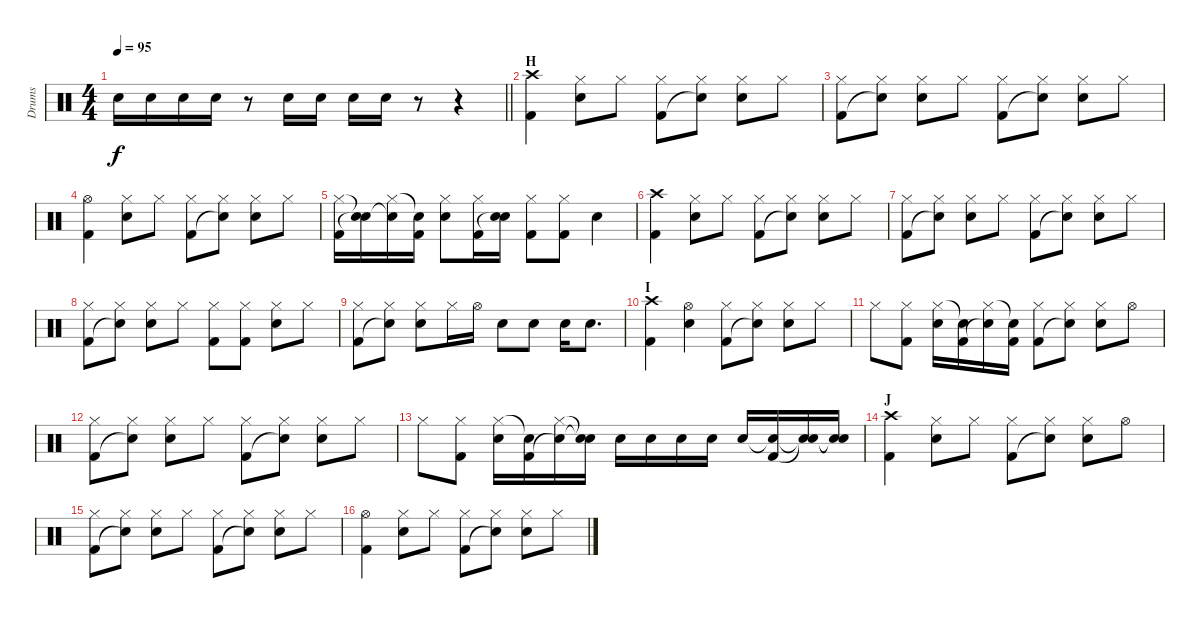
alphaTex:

\track ("Drums" "Drums") {instrument percussion}
\staff {score}
\articulation defaults
\ts (4 4)
\tempo 95
\clef neutral
\barLineRight lightlight
\ks c "Snare (hit) 2".16{dy f} "Snare (hit) 2".16 "Snare (hit) 2".16 "Snare (hit) 2".16
r.8 "Snare (hit) 2".16 "Snare (hit) 2".16 "Snare (hit) 2".16 "Snare (hit) 2".16 r.8 r.4 |
\section ("" "H")
("Crash high (hit)" "Kick (hit) 2").4 ("Hi-Hat (closed)" "Snare (hit) 2").8 "Hi-Hat (closed)".8 ("Hi-Hat (closed)" "Kick (hit) 2").8 ("Hi-Hat (closed)" "Snare (hit)"{t}).8 ("Hi-Hat (closed)" "Snare (hit) 2").8 "Hi-Hat (closed)".8 |
("Hi-Hat (closed)" "Kick (hit) 2").8 ("Hi-Hat (closed)" "Snare (hit)"{t}).8 ("Hi-Hat (closed)" "Snare (hit) 2").8 "Hi-Hat (closed)".8 ("Hi-Hat (closed)" "Kick (hit) 2").8 ("Hi-Hat (closed)" "Snare (hit)"{t}).8 ("Hi-Hat (closed)" "Snare (hit) 2").8 "Hi-Hat (closed)".8 |
("Hi-Hat (open)" "Kick (hit) 2").4 ("Hi-Hat (closed)" "Snare (hit) 2").8 "Hi-Hat (closed)".8 ("Hi-Hat (closed)" "Kick (hit) 2").8 ("Hi-Hat (closed)" "Snare (hit)"{t}).8 ("Hi-Hat (closed)" "Snare (hit) 2").8 "Hi-Hat (closed)".8 |
("Hi-Hat (closed)" "Kick (hit) 2").16 ("Snare (hit)"{t} "Snare (hit)"{t}).16 ("Hi-Hat (closed)" "Snare (hit)"{t}).16 ("Snare (hit)"{t} "Kick (hit) 2").16 ("Hi-Hat (closed)" "Snare (hit) 2").8 ("Hi-Hat (closed)" "Kick (hit) 2").16 ("Snare (hit) 2" "Snare (hit)"{t}).16 ("Hi-Hat (closed)" "Kick (hit) 2").8 ("Hi-Hat (closed)" "Kick (hit) 2").8 "Snare (hit) 2".4 |
("Crash high (hit)" "Kick (hit) 2").4 ("Hi-Hat (closed)" "Snare (hit) 2").8 "Hi-Hat (closed)".8 ("Hi-Hat (closed)" "Kick (hit) 2").8 ("Hi-Hat (closed)" "Snare (hit)"{t}).8 ("Hi-Hat (closed)" "Snare (hit) 2").8 "Hi-Hat (closed)".8 |
("Hi-Hat (closed)" "Kick (hit) 2").8 ("Hi-Hat (closed)" "Snare (hit)"{t}).8 ("Hi-Hat (closed)" "Snare (hit) 2").8 "Hi-Hat (closed)".8 ("Hi-Hat (closed)" "Kick (hit) 2").8 ("Hi-Hat (closed)" "Snare (hit)"{t}).8 ("Hi-Hat (closed)" "Snare (hit) 2").8 "Hi-Hat (closed)".8 |
("Hi-Hat (closed)" "Kick (hit) 2").8 ("Hi-Hat (closed)" "Snare (hit)"{t}).8 ("Hi-Hat (closed)" "Snare (hit) 2").8 "Hi-Hat (closed)".8 ("Hi-Hat (closed)" "Kick (hit) 2").8 ("Hi-Hat (closed)" "Kick (hit) 2").8 ("Hi-Hat (closed)" "Snare (hit) 2").8 "Hi-Hat (closed)".8 |
("Hi-Hat (closed)" "Kick (hit) 2").8 ("Hi-Hat (closed)" "Snare (hit)"{t}).8 ("Hi-Hat (closed)" "Snare (hit) 2").8 "Hi-Hat (closed)".16 "Hi-Hat (open)".16 "Snare (hit) 2".8 "Snare (hit) 2".8 "Snare (hit) 2".16 "Snare (hit) 2".8{d} |
\section ("" "I")
("Crash high (hit)" "Kick (hit) 2").4 ("Hi-Hat (open)" "Snare (hit) 2").4 ("Hi-Hat (closed)" "Kick (hit) 2").8 ("Hi-Hat (closed)" "Snare (hit)"{t}).8 ("Hi-Hat (closed)" "Snare (hit) 2").8 "Hi-Hat (closed)".8 |
"Hi-Hat (closed)".8 ("Hi-Hat (closed)" "Kick (hit) 2").8 ("Hi-Hat (closed)" "Snare (hit) 2").16 ("Snare (hit)"{t} "Kick (hit) 2").16 ("Hi-Hat (closed)" "Snare (hit)"{t}).16 ("Snare (hit)"{t} "Kick (hit) 2").16 ("Hi-Hat (closed)" "Kick (hit) 2").8 ("Hi-Hat (closed)" "Snare (hit)"{t}).8 ("Hi-Hat (closed)" "Snare (hit) 2").8 "Hi-Hat (open)".8 |
("Hi-Hat (closed)" "Kick (hit) 2").8 ("Hi-Hat (closed)" "Snare (hit)"{t}).8 ("Hi-Hat (closed)" "Snare (hit) 2").8 "Hi-Hat (closed)".8 ("Hi-Hat (closed)" "Kick (hit) 2").8 ("Hi-Hat (closed)" "Snare (hit)"{t}).8 ("Hi-Hat (closed)" "Snare (hit) 2").8 "Hi-Hat (closed)".8 |
"Hi-Hat (closed)".8 ("Hi-Hat (closed)" "Kick (hit) 2").8 ("Hi-Hat (closed)" "Snare (hit) 2").16 ("Snare (hit)"{t} "Kick (hit) 2").16 ("Hi-Hat (closed)" "Snare (hit)"{t}).16 ("Snare (hit)"{t} "Snare (hit)"{t}).16 "Snare (hit) 2".16 "Snare (hit) 2".16 "Snare (hit) 2".16 "Snare (hit) 2".16 "Snare (hit) 2".16 ("Snare (hit)"{t} "Kick (hit) 2").16 ("Snare (hit)"{t} "Snare (hit)"{t}).16 ("Snare (hit)"{t} "Snare (hit)"{t}).16 |
\section ("" "J")
("Crash high (hit)" "Kick (hit) 2").4 ("Hi-Hat (closed)" "Snare (hit) 2").8 "Hi-Hat (closed)".8 ("Hi-Hat (closed)" "Kick (hit) 2").8 ("Hi-Hat (closed)" "Snare (hit)"{t}).8 ("Hi-Hat (closed)" "Snare (hit) 2").8 "Hi-Hat (open)".8 |
("Hi-Hat (closed)" "Kick (hit) 2").8 ("Hi-Hat (closed)" "Snare (hit)"{t}).8 ("Hi-Hat (closed)" "Snare (hit) 2").8 "Hi-Hat (closed)".8 ("Hi-Hat (closed)" "Kick (hit) 2").8 ("Hi-Hat (closed)" "Snare (hit)"{t}).8 ("Hi-Hat (closed)" "Snare (hit) 2").8 "Hi-Hat (closed)".8 |
("Hi-Hat (open)" "Kick (hit) 2").4 ("Hi-Hat (closed)" "Snare (hit) 2").8 "Hi-Hat (closed)".8 ("Hi-Hat (closed)" "Kick (hit) 2").8 ("Hi-Hat (closed)" "Snare (hit)"{t}).8 ("Hi-Hat (closed)" "Snare (hit) 2").8 "Hi-Hat (closed)".8
